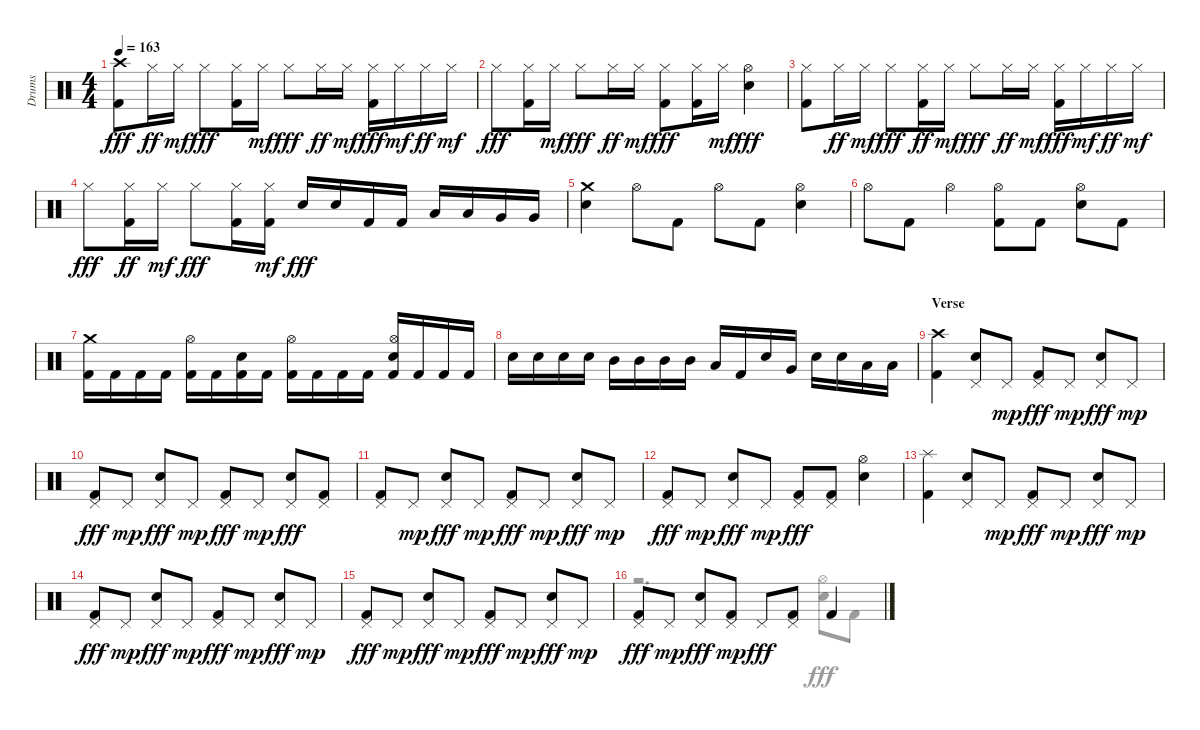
\track ("Drums" "Drums") {instrument percussion}
\staff {score}
\articulation defaults
\voice
\ts (4 4)
\tempo 163
\clef neutral
\ks aminor
("Crash high (hit)" "Kick (hit) 2").8{dy fff} "Hi-Hat (closed)".16{dy ff} "Hi-Hat (closed)".16{dy mf} "Hi-Hat (closed)".8{dy fff} ("Kick (hit) 2" "Hi-Hat (closed)").16 "Hi-Hat (closed)".16{dy mf} "Hi-Hat (closed)".8{dy fff} "Hi-Hat (closed)".16{dy ff} "Hi-Hat (closed)".16{dy mf} ("Hi-Hat (closed)" "Kick (hit) 2").16{dy fff} "Hi-Hat (closed)".16{dy mf} "Hi-Hat (closed)".16{dy ff} "Hi-Hat (closed)".16{dy mf} |
"Hi-Hat (closed)".8{dy fff} ("Hi-Hat (closed)" "Kick (hit) 2").16 "Hi-Hat (closed)".16{dy mf} "Hi-Hat (closed)".8{dy fff} "Hi-Hat (closed)".16{dy ff} "Hi-Hat (closed)".16{dy mf} ("Kick (hit) 2" "Hi-Hat (closed)").8{dy fff} ("Kick (hit) 2" "Hi-Hat (closed)").16 "Hi-Hat (closed)".16{dy mf} ("Hi-Hat (open)" "Snare (hit) 2").4{dy fff} |
("Hi-Hat (closed)" "Kick (hit) 2").8 "Hi-Hat (closed)".16{dy ff} "Hi-Hat (closed)".16{dy mf} "Hi-Hat (closed)".8{dy fff} ("Hi-Hat (closed)" "Kick (hit) 2").16{dy ff} "Hi-Hat (closed)".16{dy mf} "Hi-Hat (closed)".8{dy fff} "Hi-Hat (closed)".16{dy ff} "Hi-Hat (closed)".16{dy mf} ("Kick (hit) 2" "Hi-Hat (closed)").16{dy fff} "Hi-Hat (closed)".16{dy mf} "Hi-Hat (closed)".16{dy ff} "Hi-Hat (closed)".16{dy mf} |
"Hi-Hat (closed)".8{dy fff} ("Hi-Hat (closed)" "Kick (hit) 2").16{dy ff} "Hi-Hat (closed)".16{dy mf} "Hi-Hat (closed)".8{dy fff} ("Hi-Hat (closed)" "Kick (hit) 2").16 ("Hi-Hat (closed)" "Kick (hit) 2").16{dy mf} "Snare (hit) 2".16{dy fff} "Snare (hit) 2".16 "Kick (hit) 2".16 "Kick (hit) 2".16 "Low Tom (hit)".16 "Low Tom (hit)".16 "Very Low Tom (hit)".16 "Very Low Tom (hit)".16 |
("Snare (hit) 2" "Crash medium (hit)").4 "Hi-Hat (open)".8 "Kick (hit) 2".8 "Hi-Hat (open)".8 "Kick (hit) 2".8 ("Snare (hit) 2" "Hi-Hat (open)").4 |
"Hi-Hat (open)".8 "Kick (hit) 2".8 "Hi-Hat (open)".4 ("Hi-Hat (open)" "Kick (hit) 2").8 "Kick (hit) 2".8 ("Snare (hit) 2" "Hi-Hat (open)").8 "Kick (hit) 2".8 |
("Crash medium (hit)" "Kick (hit) 2").16 "Kick (hit) 2".16 "Kick (hit) 2".16 "Kick (hit) 2".16 ("Hi-Hat (open)" "Kick (hit) 2").16 "Kick (hit) 2".16 ("Kick (hit) 2" "Snare (hit) 2").16 "Kick (hit) 2".16 ("Hi-Hat (open)" "Kick (hit) 2").16 "Kick (hit) 2".16 "Kick (hit) 2".16 "Kick (hit) 2".16 ("Kick (hit) 2" "Snare (hit) 2" "Hi-Hat (open)").16 "Kick (hit) 2".16 "Kick (hit) 2".16 "Kick (hit) 2".16 |
"Snare (hit) 2".16 "Snare (hit) 2".16 "Snare (hit) 2".16 "Snare (hit) 2".16 "Mid Tom (hit)".16 "Mid Tom (hit)".16 "Mid Tom (hit)".16 "Mid Tom (hit)".16 "Low Tom (hit)".16 "Kick (hit) 2".16 "Snare (hit) 2".16 "Very Low Tom (hit)".16 "Snare (hit) 2".16 "Snare (hit) 2".16 "Low Floor Tom (hit)".16 "Low Floor Tom (hit)".16 |
\section ("" "Verse")
("Crash high (hit)" "Kick (hit) 2").4 ("Pedal Hi-Hat (hit)" "Snare (hit) 2").8 "Pedal Hi-Hat (hit)".8{dy mp} ("Kick (hit) 2" "Pedal Hi-Hat (hit)").8{dy fff} "Pedal Hi-Hat (hit)".8{dy mp} ("Snare (hit) 2" "Pedal Hi-Hat (hit)").8{dy fff} "Pedal Hi-Hat (hit)".8{dy mp} |
("Kick (hit) 2" "Pedal Hi-Hat (hit)").8{dy fff} "Pedal Hi-Hat (hit)".8{dy mp} ("Snare (hit) 2" "Pedal Hi-Hat (hit)").8{dy fff} "Pedal Hi-Hat (hit)".8{dy mp} ("Pedal Hi-Hat (hit)" "Kick (hit) 2").8{dy fff} "Pedal Hi-Hat (hit)".8{dy mp} ("Pedal Hi-Hat (hit)" "Snare (hit) 2").8{dy fff} ("Kick (hit) 2" "Pedal Hi-Hat (hit)").8 |
("Pedal Hi-Hat (hit)" "Kick (hit) 2").8 "Pedal Hi-Hat (hit)".8{dy mp} ("Snare (hit) 2" "Pedal Hi-Hat (hit)").8{dy fff} "Pedal Hi-Hat (hit)".8{dy mp} ("Kick (hit) 2" "Pedal Hi-Hat (hit)").8{dy fff} "Pedal Hi-Hat (hit)".8{dy mp} ("Snare (hit) 2" "Pedal Hi-Hat (hit)").8{dy fff} "Pedal Hi-Hat (hit)".8{dy mp} |
("Kick (hit) 2" "Pedal Hi-Hat (hit)").8{dy fff} "Pedal Hi-Hat (hit)".8{dy mp} ("Snare (hit) 2" "Pedal Hi-Hat (hit)").8{dy fff} "Pedal Hi-Hat (hit)".8{dy mp} ("Pedal Hi-Hat (hit)" "Kick (hit) 2").8{dy fff} ("Pedal Hi-Hat (hit)" "Kick (hit) 2").8 ("Snare (hit) 2" "Hi-Hat (open)").4 |
("Kick (hit) 2" "Splash (hit)").4 ("Pedal Hi-Hat (hit)" "Snare (hit) 2").8 "Pedal Hi-Hat (hit)".8{dy mp} ("Kick (hit) 2" "Pedal Hi-Hat (hit)").8{dy fff} "Pedal Hi-Hat (hit)".8{dy mp} ("Snare (hit) 2" "Pedal Hi-Hat (hit)").8{dy fff} "Pedal Hi-Hat (hit)".8{dy mp} |
("Pedal Hi-Hat (hit)" "Kick (hit) 2").8{dy fff} "Pedal Hi-Hat (hit)".8{dy mp} ("Snare (hit) 2" "Pedal Hi-Hat (hit)").8{dy fff} "Pedal Hi-Hat (hit)".8{dy mp} ("Kick (hit) 2" "Pedal Hi-Hat (hit)").8{dy fff} "Pedal Hi-Hat (hit)".8{dy mp} ("Pedal Hi-Hat (hit)" "Snare (hit) 2").8{dy fff} "Pedal Hi-Hat (hit)".8{dy mp} |
("Kick (hit) 2" "Pedal Hi-Hat (hit)").8{dy fff} "Pedal Hi-Hat (hit)".8{dy mp} ("Pedal Hi-Hat (hit)" "Snare (hit) 2").8{dy fff} "Pedal Hi-Hat (hit)".8{dy mp} ("Kick (hit) 2" "Pedal Hi-Hat (hit)").8{dy fff} "Pedal Hi-Hat (hit)".8{dy mp} ("Pedal Hi-Hat (hit)" "Snare (hit) 2").8{dy fff} "Pedal Hi-Hat (hit)".8{dy mp} |
("Kick (hit) 2" "Pedal Hi-Hat (hit)").8{dy fff} "Pedal Hi-Hat (hit)".8{dy mp} ("Snare (hit) 2" "Pedal Hi-Hat (hit)").8{dy fff} ("Kick (hit) 2" "Pedal Hi-Hat (hit)").8{dy mp} "Pedal Hi-Hat (hit)".8{dy fff} ("Kick (hit) 2" "Pedal Hi-Hat (hit)").8 "Kick (hit) 2".4
\voice
\clef neutral
\ottava regular
\simile none
\ks aminor
|
|
|
|
|
|
|
|
|
|
|
|
|
|
|
r.2{d} ("Snare (hit) 2" "Hi-Hat (open)").8 "Kick (hit) 2".8
